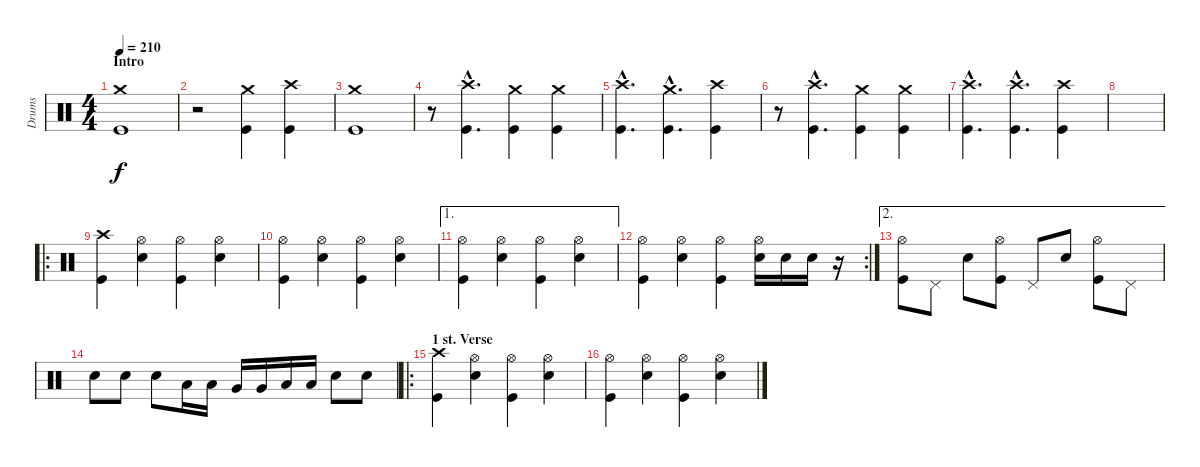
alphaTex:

\track ("Drums" "Drums") {instrument percussion}
\staff {score}
\articulation defaults
\ts (4 4)
\section ("" "Intro")
\tempo 210
\clef neutral
\ks c
("Crash medium (hit)" "Kick (hit)").1{dy f} |
r.2 ("Crash medium (hit)" "Kick (hit)").4 ("Crash high (hit)" "Kick (hit)").4 |
("Crash medium (hit)" "Kick (hit)").1 |
r.8 ("Crash high (hit)"{hac} "Kick (hit)"{hac}).4{d} ("Crash medium (hit)" "Kick (hit)").4 ("Crash medium (hit)" "Kick (hit)").4 |
("Crash high (hit)"{hac} "Kick (hit)"{hac}).4{d} ("Crash medium (hit)"{hac} "Kick (hit)"{hac}).4{d} ("Crash high (hit)" "Kick (hit)").4 |
r.8 ("Crash high (hit)"{hac} "Kick (hit)"{hac}).4{d} ("Crash medium (hit)" "Kick (hit)").4 ("Crash medium (hit)" "Kick (hit)").4 |
("Crash high (hit)"{hac} "Kick (hit)"{hac}).4{d} ("Crash high (hit)"{hac} "Kick (hit)"{hac}).4{d} ("Crash high (hit)" "Kick (hit)").4 |
|
\ro
("Crash high (hit)" "Kick (hit)").4 ("Hi-Hat (open)" "Snare (hit) 2").4 ("Hi-Hat (open)" "Kick (hit)").4 ("Hi-Hat (open)" "Snare (hit) 2").4 |
("Hi-Hat (open)" "Kick (hit)").4 ("Hi-Hat (open)" "Snare (hit) 2").4 ("Hi-Hat (open)" "Kick (hit)").4 ("Hi-Hat (open)" "Snare (hit) 2").4 |
\ae 1
("Hi-Hat (open)" "Kick (hit)").4 ("Hi-Hat (open)" "Snare (hit) 2").4 ("Hi-Hat (open)" "Kick (hit)").4 ("Hi-Hat (open)" "Snare (hit) 2").4 |
\rc 2
("Hi-Hat (open)" "Kick (hit)").4 ("Hi-Hat (open)" "Snare (hit) 2").4 ("Hi-Hat (open)" "Kick (hit)").4 ("Hi-Hat (open)" "Snare (hit) 2").16 "Snare (hit) 2".16 "Snare (hit) 2".16 r.16 |
\ae 2
("Hi-Hat (open)" "Kick (hit)").8 "Pedal Hi-Hat (hit)".8 "Snare (hit) 2".8 ("Hi-Hat (open)" "Kick (hit)").8 "Pedal Hi-Hat (hit)".8 "Snare (hit) 2".8 ("Hi-Hat (open)" "Kick (hit)").8 "Pedal Hi-Hat (hit)".8 |
"Snare (hit) 2".8 "Snare (hit) 2".8 "Snare (hit) 2".8 "Low Tom (hit)".16 "Low Tom (hit)".16 "Very Low Tom (hit)".16 "Very Low Tom (hit)".16 "Low Floor Tom (hit)".16 "Low Floor Tom (hit)".16 "Snare (hit) 2".8 "Snare (hit) 2".8 |
\ro
\section ("" "1 st. Verse")
("Crash high (hit)" "Kick (hit)").4 ("Hi-Hat (open)" "Snare (hit) 2").4 ("Hi-Hat (open)" "Kick (hit)").4 ("Hi-Hat (open)" "Snare (hit) 2").4 |
("Hi-Hat (open)" "Kick (hit)").4 ("Hi-Hat (open)" "Snare (hit) 2").4 ("Hi-Hat (open)" "Kick (hit)").4 ("Hi-Hat (open)" "Snare (hit) 2").4
